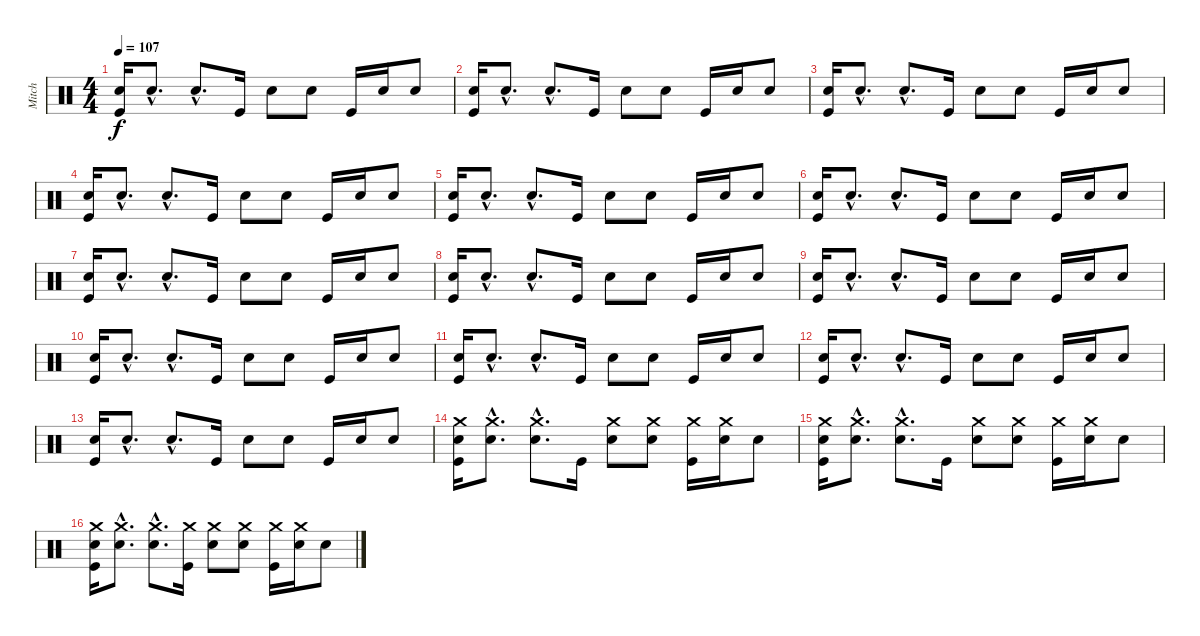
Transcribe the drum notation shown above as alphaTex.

\track ("Mitch" "Mitch") {instrument percussion}
\staff {score}
\articulation defaults
\ts (4 4)
\tempo 107
\clef neutral
\ks c
("Electric Snare (hit)" "Kick (hit)").16{dy f} "Electric Snare (hit)"{hac}.8{d} "Electric Snare (hit)"{hac}.8{d} "Kick (hit)".16 "Electric Snare (hit)".8 "Electric Snare (hit)".8 "Kick (hit)".16 "Electric Snare (hit)".16 "Electric Snare (hit)".8 |
("Electric Snare (hit)" "Kick (hit)").16 "Electric Snare (hit)"{hac}.8{d} "Electric Snare (hit)"{hac}.8{d} "Kick (hit)".16 "Electric Snare (hit)".8 "Electric Snare (hit)".8 "Kick (hit)".16 "Electric Snare (hit)".16 "Electric Snare (hit)".8 |
("Electric Snare (hit)" "Kick (hit)").16 "Electric Snare (hit)"{hac}.8{d} "Electric Snare (hit)"{hac}.8{d} "Kick (hit)".16 "Electric Snare (hit)".8 "Electric Snare (hit)".8 "Kick (hit)".16 "Electric Snare (hit)".16 "Electric Snare (hit)".8 |
("Electric Snare (hit)" "Kick (hit)").16 "Electric Snare (hit)"{hac}.8{d} "Electric Snare (hit)"{hac}.8{d} "Kick (hit)".16 "Electric Snare (hit)".8 "Electric Snare (hit)".8 "Kick (hit)".16 "Electric Snare (hit)".16 "Electric Snare (hit)".8 |
("Electric Snare (hit)" "Kick (hit)").16 "Electric Snare (hit)"{hac}.8{d} "Electric Snare (hit)"{hac}.8{d} "Kick (hit)".16 "Electric Snare (hit)".8 "Electric Snare (hit)".8 "Kick (hit)".16 "Electric Snare (hit)".16 "Electric Snare (hit)".8 |
("Electric Snare (hit)" "Kick (hit)").16 "Electric Snare (hit)"{hac}.8{d} "Electric Snare (hit)"{hac}.8{d} "Kick (hit)".16 "Electric Snare (hit)".8 "Electric Snare (hit)".8 "Kick (hit)".16 "Electric Snare (hit)".16 "Electric Snare (hit)".8 |
("Electric Snare (hit)" "Kick (hit)").16 "Electric Snare (hit)"{hac}.8{d} "Electric Snare (hit)"{hac}.8{d} "Kick (hit)".16 "Electric Snare (hit)".8 "Electric Snare (hit)".8 "Kick (hit)".16 "Electric Snare (hit)".16 "Electric Snare (hit)".8 |
("Electric Snare (hit)" "Kick (hit)").16 "Electric Snare (hit)"{hac}.8{d} "Electric Snare (hit)"{hac}.8{d} "Kick (hit)".16 "Electric Snare (hit)".8 "Electric Snare (hit)".8 "Kick (hit)".16 "Electric Snare (hit)".16 "Electric Snare (hit)".8 |
("Electric Snare (hit)" "Kick (hit)").16 "Electric Snare (hit)"{hac}.8{d} "Electric Snare (hit)"{hac}.8{d} "Kick (hit)".16 "Electric Snare (hit)".8 "Electric Snare (hit)".8 "Kick (hit)".16 "Electric Snare (hit)".16 "Electric Snare (hit)".8 |
("Electric Snare (hit)" "Kick (hit)").16 "Electric Snare (hit)"{hac}.8{d} "Electric Snare (hit)"{hac}.8{d} "Kick (hit)".16 "Electric Snare (hit)".8 "Electric Snare (hit)".8 "Kick (hit)".16 "Electric Snare (hit)".16 "Electric Snare (hit)".8 |
("Electric Snare (hit)" "Kick (hit)").16 "Electric Snare (hit)"{hac}.8{d} "Electric Snare (hit)"{hac}.8{d} "Kick (hit)".16 "Electric Snare (hit)".8 "Electric Snare (hit)".8 "Kick (hit)".16 "Electric Snare (hit)".16 "Electric Snare (hit)".8 |
("Electric Snare (hit)" "Kick (hit)").16 "Electric Snare (hit)"{hac}.8{d} "Electric Snare (hit)"{hac}.8{d} "Kick (hit)".16 "Electric Snare (hit)".8 "Electric Snare (hit)".8 "Kick (hit)".16 "Electric Snare (hit)".16 "Electric Snare (hit)".8 |
("Electric Snare (hit)" "Kick (hit)").16 "Electric Snare (hit)"{hac}.8{d} "Electric Snare (hit)"{hac}.8{d} "Kick (hit)".16 "Electric Snare (hit)".8 "Electric Snare (hit)".8 "Kick (hit)".16 "Electric Snare (hit)".16 "Electric Snare (hit)".8 |
("Electric Snare (hit)" "Crash medium (hit)" "Kick (hit)").16 ("Electric Snare (hit)"{hac} "Crash medium (hit)"{hac}).8{d} ("Electric Snare (hit)"{hac} "Crash medium (hit)"{hac}).8{d} "Kick (hit)".16 ("Electric Snare (hit)" "Crash medium (hit)").8 ("Electric Snare (hit)" "Crash medium (hit)").8 ("Crash medium (hit)" "Kick (hit)").16 ("Electric Snare (hit)" "Crash medium (hit)").16 "Electric Snare (hit)".8 |
("Electric Snare (hit)" "Crash medium (hit)" "Kick (hit)").16 ("Electric Snare (hit)"{hac} "Crash medium (hit)"{hac}).8{d} ("Electric Snare (hit)"{hac} "Crash medium (hit)"{hac}).8{d} "Kick (hit)".16 ("Electric Snare (hit)" "Crash medium (hit)").8 ("Electric Snare (hit)" "Crash medium (hit)").8 ("Crash medium (hit)" "Kick (hit)").16 ("Electric Snare (hit)" "Crash medium (hit)").16 "Electric Snare (hit)".8 |
("Electric Snare (hit)" "Crash medium (hit)" "Kick (hit)").16 ("Electric Snare (hit)"{hac} "Crash medium (hit)"{hac}).8{d} ("Electric Snare (hit)"{hac} "Crash medium (hit)"{hac}).8{d} ("Crash medium (hit)" "Kick (hit)").16 ("Electric Snare (hit)" "Crash medium (hit)").8 ("Electric Snare (hit)" "Crash medium (hit)").8 ("Crash medium (hit)" "Kick (hit)").16 ("Electric Snare (hit)" "Crash medium (hit)").16 "Electric Snare (hit)".8
